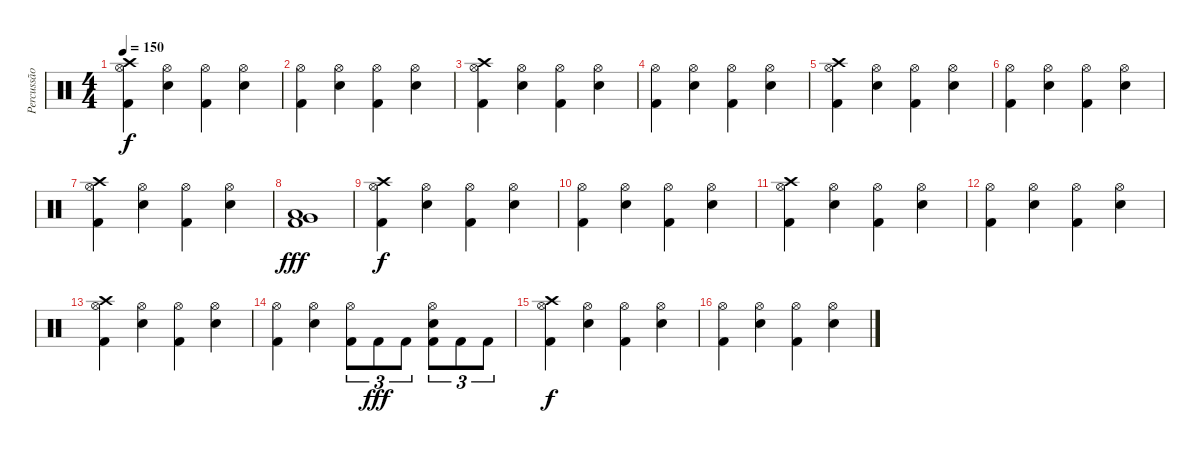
\track ("Percussão" "Percussão") {instrument percussion}
\staff {score}
\articulation defaults
\ts (4 4)
\tempo 150
\clef neutral
\ks c
("Crash high (hit)" "Hi-Hat (open)" "Kick (hit) 2").4{dy f} ("Hi-Hat (open)" "Snare (hit) 2").4 ("Hi-Hat (open)" "Kick (hit) 2").4 ("Hi-Hat (open)" "Snare (hit) 2").4 |
("Hi-Hat (open)" "Kick (hit) 2").4 ("Hi-Hat (open)" "Snare (hit) 2").4 ("Hi-Hat (open)" "Kick (hit) 2").4 ("Hi-Hat (open)" "Snare (hit) 2").4 |
("Crash high (hit)" "Hi-Hat (open)" "Kick (hit) 2").4 ("Hi-Hat (open)" "Snare (hit) 2").4 ("Hi-Hat (open)" "Kick (hit) 2").4 ("Hi-Hat (open)" "Snare (hit) 2").4 |
("Hi-Hat (open)" "Kick (hit) 2").4 ("Hi-Hat (open)" "Snare (hit) 2").4 ("Hi-Hat (open)" "Kick (hit) 2").4 ("Hi-Hat (open)" "Snare (hit) 2").4 |
("Crash high (hit)" "Hi-Hat (open)" "Kick (hit) 2").4 ("Hi-Hat (open)" "Snare (hit) 2").4 ("Hi-Hat (open)" "Kick (hit) 2").4 ("Hi-Hat (open)" "Snare (hit) 2").4 |
("Hi-Hat (open)" "Kick (hit) 2").4 ("Hi-Hat (open)" "Snare (hit) 2").4 ("Hi-Hat (open)" "Kick (hit) 2").4 ("Hi-Hat (open)" "Snare (hit) 2").4 |
("Crash high (hit)" "Hi-Hat (open)" "Kick (hit) 2").4 ("Hi-Hat (open)" "Snare (hit) 2").4 ("Hi-Hat (open)" "Kick (hit) 2").4 ("Hi-Hat (open)" "Snare (hit) 2").4 |
("Kick (hit) 2" "Very Low Tom (hit)" "Low Floor Tom (hit)").1{dy fff} |
("Crash high (hit)" "Hi-Hat (open)" "Kick (hit) 2").4{dy f} ("Hi-Hat (open)" "Snare (hit) 2").4 ("Hi-Hat (open)" "Kick (hit) 2").4 ("Hi-Hat (open)" "Snare (hit) 2").4 |
("Hi-Hat (open)" "Kick (hit) 2").4 ("Hi-Hat (open)" "Snare (hit) 2").4 ("Hi-Hat (open)" "Kick (hit) 2").4 ("Hi-Hat (open)" "Snare (hit) 2").4 |
("Crash high (hit)" "Hi-Hat (open)" "Kick (hit) 2").4 ("Hi-Hat (open)" "Snare (hit) 2").4 ("Hi-Hat (open)" "Kick (hit) 2").4 ("Hi-Hat (open)" "Snare (hit) 2").4 |
("Hi-Hat (open)" "Kick (hit) 2").4 ("Hi-Hat (open)" "Snare (hit) 2").4 ("Hi-Hat (open)" "Kick (hit) 2").4 ("Hi-Hat (open)" "Snare (hit) 2").4 |
("Crash high (hit)" "Hi-Hat (open)" "Kick (hit) 2").4 ("Hi-Hat (open)" "Snare (hit) 2").4 ("Hi-Hat (open)" "Kick (hit) 2").4 ("Hi-Hat (open)" "Snare (hit) 2").4 |
("Hi-Hat (open)" "Kick (hit) 2").4 ("Hi-Hat (open)" "Snare (hit) 2").4 ("Hi-Hat (open)" "Kick (hit) 2").8{tu (3 2)} "Kick (hit) 2".8{tu (3 2) dy fff} "Kick (hit) 2".8{tu (3 2)} ("Hi-Hat (open)" "Snare (hit) 2" "Kick (hit) 2").8{tu (3 2)} "Kick (hit) 2".8{tu (3 2)} "Kick (hit) 2".8{tu (3 2)} |
("Crash high (hit)" "Hi-Hat (open)" "Kick (hit) 2").4{dy f} ("Hi-Hat (open)" "Snare (hit) 2").4 ("Hi-Hat (open)" "Kick (hit) 2").4 ("Hi-Hat (open)" "Snare (hit) 2").4 |
("Hi-Hat (open)" "Kick (hit) 2").4 ("Hi-Hat (open)" "Snare (hit) 2").4 ("Hi-Hat (open)" "Kick (hit) 2").4 ("Hi-Hat (open)" "Snare (hit) 2").4
